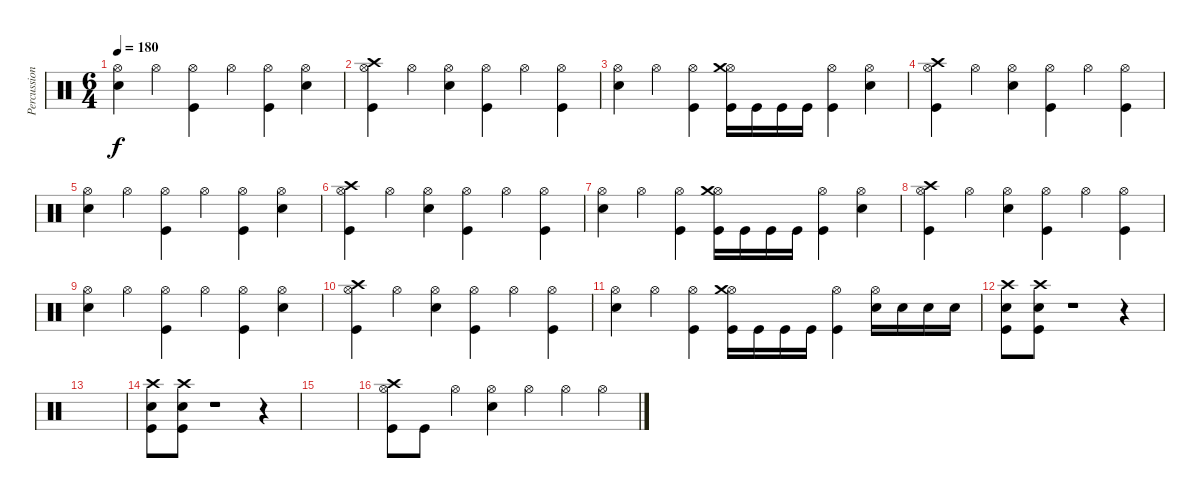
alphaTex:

\track ("Percussion" "Percussion") {instrument percussion}
\staff {score}
\articulation defaults
\ts (6 4)
\tempo 180
\clef neutral
\ks c
("Hi-Hat (open)" "Electric Snare (hit)").4{dy f} "Hi-Hat (open)".4 ("Hi-Hat (open)" "Kick (hit)").4 "Hi-Hat (open)".4 ("Hi-Hat (open)" "Kick (hit)").4 ("Hi-Hat (open)" "Electric Snare (hit)").4 |
("Crash high (hit)" "Hi-Hat (open)" "Kick (hit)").4 "Hi-Hat (open)".4 ("Hi-Hat (open)" "Electric Snare (hit)").4 ("Hi-Hat (open)" "Kick (hit)").4 "Hi-Hat (open)".4 ("Hi-Hat (open)" "Kick (hit)").4 |
("Hi-Hat (open)" "Electric Snare (hit)").4 "Hi-Hat (open)".4 ("Hi-Hat (open)" "Kick (hit)").4 ("Hi-Hat (open)" "Crash medium (hit)" "Kick (hit)").16 "Kick (hit)".16 "Kick (hit)".16 "Kick (hit)".16 ("Hi-Hat (open)" "Kick (hit)").4 ("Hi-Hat (open)" "Electric Snare (hit)").4 |
("Crash high (hit)" "Hi-Hat (open)" "Kick (hit)").4 "Hi-Hat (open)".4 ("Hi-Hat (open)" "Electric Snare (hit)").4 ("Hi-Hat (open)" "Kick (hit)").4 "Hi-Hat (open)".4 ("Hi-Hat (open)" "Kick (hit)").4 |
("Hi-Hat (open)" "Electric Snare (hit)").4 "Hi-Hat (open)".4 ("Hi-Hat (open)" "Kick (hit)").4 "Hi-Hat (open)".4 ("Hi-Hat (open)" "Kick (hit)").4 ("Hi-Hat (open)" "Electric Snare (hit)").4 |
("Crash high (hit)" "Hi-Hat (open)" "Kick (hit)").4 "Hi-Hat (open)".4 ("Hi-Hat (open)" "Electric Snare (hit)").4 ("Hi-Hat (open)" "Kick (hit)").4 "Hi-Hat (open)".4 ("Hi-Hat (open)" "Kick (hit)").4 |
("Hi-Hat (open)" "Electric Snare (hit)").4 "Hi-Hat (open)".4 ("Hi-Hat (open)" "Kick (hit)").4 ("Hi-Hat (open)" "Crash medium (hit)" "Kick (hit)").16 "Kick (hit)".16 "Kick (hit)".16 "Kick (hit)".16 ("Hi-Hat (open)" "Kick (hit)").4 ("Hi-Hat (open)" "Electric Snare (hit)").4 |
("Crash high (hit)" "Hi-Hat (open)" "Kick (hit)").4 "Hi-Hat (open)".4 ("Hi-Hat (open)" "Electric Snare (hit)").4 ("Hi-Hat (open)" "Kick (hit)").4 "Hi-Hat (open)".4 ("Hi-Hat (open)" "Kick (hit)").4 |
("Hi-Hat (open)" "Electric Snare (hit)").4 "Hi-Hat (open)".4 ("Hi-Hat (open)" "Kick (hit)").4 "Hi-Hat (open)".4 ("Hi-Hat (open)" "Kick (hit)").4 ("Hi-Hat (open)" "Electric Snare (hit)").4 |
("Crash high (hit)" "Hi-Hat (open)" "Kick (hit)").4 "Hi-Hat (open)".4 ("Hi-Hat (open)" "Electric Snare (hit)").4 ("Hi-Hat (open)" "Kick (hit)").4 "Hi-Hat (open)".4 ("Hi-Hat (open)" "Kick (hit)").4 |
("Hi-Hat (open)" "Electric Snare (hit)").4 "Hi-Hat (open)".4 ("Hi-Hat (open)" "Kick (hit)").4 ("Hi-Hat (open)" "Crash medium (hit)" "Kick (hit)").16 "Kick (hit)".16 "Kick (hit)".16 "Kick (hit)".16 ("Hi-Hat (open)" "Kick (hit)").4 ("Hi-Hat (open)" "Electric Snare (hit)").16 "Electric Snare (hit)".16 "Electric Snare (hit)".16 "Electric Snare (hit)".16 |
("Crash high (hit)" "Electric Snare (hit)" "Kick (hit)").8 ("Crash high (hit)" "Electric Snare (hit)" "Kick (hit)").8 r.1 r.4 |
|
("Crash high (hit)" "Electric Snare (hit)" "Kick (hit)").8 ("Crash high (hit)" "Electric Snare (hit)" "Kick (hit)").8 r.1 r.4 |
|
("Crash high (hit)" "Hi-Hat (open)" "Kick (hit)").8 "Kick (hit)".8 "Hi-Hat (open)".4 ("Hi-Hat (open)" "Electric Snare (hit)").4 "Hi-Hat (open)".4 "Hi-Hat (open)".4 "Hi-Hat (open)".4
